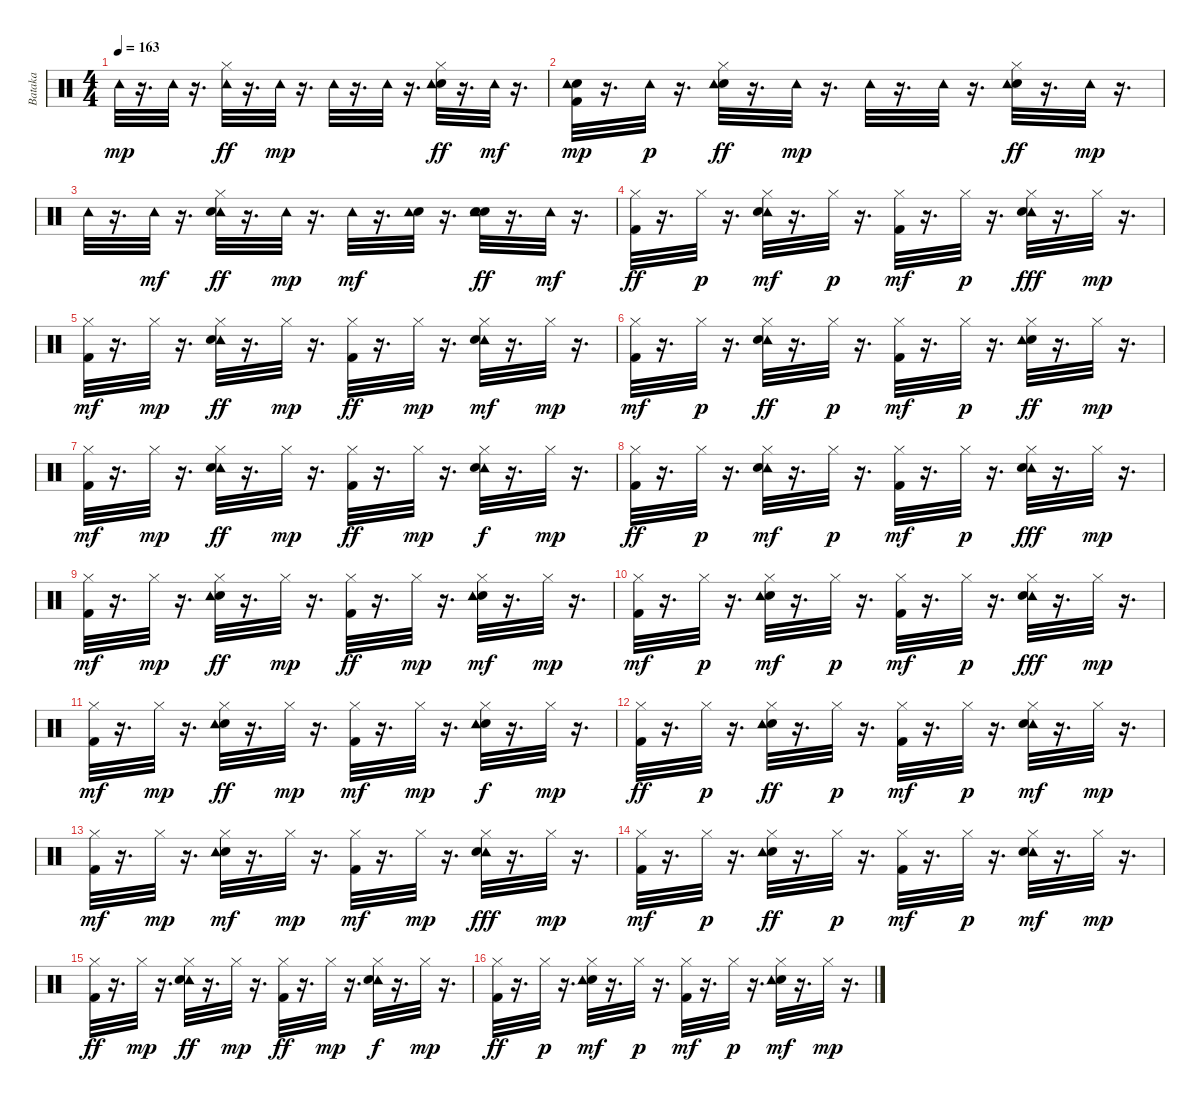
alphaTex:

\track ("Bataka" "Bataka") {instrument percussion}
\staff {score}
\articulation defaults
\ts (4 4)
\tempo 163
\clef neutral
\ks c "Tambourine (hit)".32{dy mp}
r.16{d} "Tambourine (hit)".32 r.16{d} ("Tambourine (hit)" "Hi-Hat (closed)").32{dy ff} r.16{d} "Tambourine (hit)".32{dy mp} r.16{d} "Tambourine (hit)".32 r.16{d} "Tambourine (hit)".32 r.16{d} ("Hand Clap (hit)" "Hi-Hat (closed)" "Tambourine (hit)").32{dy ff} r.16{d} "Tambourine (hit)".32{dy mf} r.16{d} |
("Kick (hit) 2" "Electric Snare (hit)" "Tambourine (hit)").32{dy mp} r.16{d} "Tambourine (hit)".32{dy p} r.16{d} ("Hi-Hat (closed)" "Hand Clap (hit)" "Tambourine (hit)").32{dy ff} r.16{d} "Tambourine (hit)".32{dy mp} r.16{d} "Tambourine (hit)".32 r.16{d} "Tambourine (hit)".32 r.16{d} ("Hand Clap (hit)" "Hi-Hat (closed)" "Tambourine (hit)").32{dy ff} r.16{d} "Tambourine (hit)".32{dy mp} r.16{d} |
"Tambourine (hit)".32 r.16{d} "Tambourine (hit)".32{dy mf} r.16{d} ("Tambourine (hit)" "Hand Clap (hit)" "Hi-Hat (closed)").32{dy ff} r.16{d} "Tambourine (hit)".32{dy mp} r.16{d} "Tambourine (hit)".32{dy mf} r.16{d} ("Electric Snare (hit)" "Tambourine (hit)").32 r.16{d} ("Electric Snare (hit)" "Hand Clap (hit)" "Tambourine (hit)").32{dy ff} r.16{d} "Tambourine (hit)".32{dy mf} r.16{d} |
("Hi-Hat (closed)" "Kick (hit) 2").32{dy ff} r.16{d} "Hi-Hat (closed)".32{dy p} r.16{d} ("Tambourine (hit)" "Electric Snare (hit)" "Hi-Hat (closed)").32{dy mf} r.16{d} "Hi-Hat (closed)".32{dy p} r.16{d} ("Hi-Hat (closed)" "Kick (hit) 2").32{dy mf} r.16{d} "Hi-Hat (closed)".32{dy p} r.16{d} ("Tambourine (hit)" "Hi-Hat (closed)" "Electric Snare (hit)").32{dy fff} r.16{d} "Hi-Hat (closed)".32{dy mp} r.16{d} |
("Hi-Hat (closed)" "Kick (hit) 2").32{dy mf} r.16{d} "Hi-Hat (closed)".32{dy mp} r.16{d} ("Hi-Hat (closed)" "Tambourine (hit)" "Electric Snare (hit)").32{dy ff} r.16{d} "Hi-Hat (closed)".32{dy mp} r.16{d} ("Hi-Hat (closed)" "Kick (hit) 2").32{dy ff} r.16{d} "Hi-Hat (closed)".32{dy mp} r.16{d} ("Tambourine (hit)" "Electric Snare (hit)" "Hi-Hat (closed)").32{dy mf} r.16{d} "Hi-Hat (closed)".32{dy mp} r.16{d} |
("Kick (hit) 2" "Hi-Hat (closed)").32{dy mf} r.16{d} "Hi-Hat (closed)".32{dy p} r.16{d} ("Tambourine (hit)" "Hi-Hat (closed)" "Electric Snare (hit)").32{dy ff} r.16{d} "Hi-Hat (closed)".32{dy p} r.16{d} ("Kick (hit) 2" "Hi-Hat (closed)").32{dy mf} r.16{d} "Hi-Hat (closed)".32{dy p} r.16{d} ("Hi-Hat (closed)" "Electric Snare (hit)" "Tambourine (hit)").32{dy ff} r.16{d} "Hi-Hat (closed)".32{dy mp} r.16{d} |
("Kick (hit) 2" "Hi-Hat (closed)").32{dy mf} r.16{d} "Hi-Hat (closed)".32{dy mp} r.16{d} ("Hi-Hat (closed)" "Tambourine (hit)" "Electric Snare (hit)").32{dy ff} r.16{d} "Hi-Hat (closed)".32{dy mp} r.16{d} ("Hi-Hat (closed)" "Kick (hit) 2").32{dy ff} r.16{d} "Hi-Hat (closed)".32{dy mp} r.16{d} ("Hi-Hat (closed)" "Tambourine (hit)" "Electric Snare (hit)").32{dy f} r.16{d} "Hi-Hat (closed)".32{dy mp} r.16{d} |
("Hi-Hat (closed)" "Kick (hit) 2").32{dy ff} r.16{d} "Hi-Hat (closed)".32{dy p} r.16{d} ("Tambourine (hit)" "Electric Snare (hit)" "Hi-Hat (closed)").32{dy mf} r.16{d} "Hi-Hat (closed)".32{dy p} r.16{d} ("Hi-Hat (closed)" "Kick (hit) 2").32{dy mf} r.16{d} "Hi-Hat (closed)".32{dy p} r.16{d} ("Tambourine (hit)" "Hi-Hat (closed)" "Electric Snare (hit)").32{dy fff} r.16{d} "Hi-Hat (closed)".32{dy mp} r.16{d} |
("Hi-Hat (closed)" "Kick (hit) 2").32{dy mf} r.16{d} "Hi-Hat (closed)".32{dy mp} r.16{d} ("Hi-Hat (closed)" "Electric Snare (hit)" "Tambourine (hit)").32{dy ff} r.16{d} "Hi-Hat (closed)".32{dy mp} r.16{d} ("Hi-Hat (closed)" "Kick (hit) 2").32{dy ff} r.16{d} "Hi-Hat (closed)".32{dy mp} r.16{d} ("Electric Snare (hit)" "Hi-Hat (closed)" "Tambourine (hit)").32{dy mf} r.16{d} "Hi-Hat (closed)".32{dy mp} r.16{d} |
("Kick (hit) 2" "Hi-Hat (closed)").32{dy mf} r.16{d} "Hi-Hat (closed)".32{dy p} r.16{d} ("Electric Snare (hit)" "Tambourine (hit)" "Hi-Hat (closed)").32{dy mf} r.16{d} "Hi-Hat (closed)".32{dy p} r.16{d} ("Hi-Hat (closed)" "Kick (hit) 2").32{dy mf} r.16{d} "Hi-Hat (closed)".32{dy p} r.16{d} ("Hi-Hat (closed)" "Tambourine (hit)" "Electric Snare (hit)").32{dy fff} r.16{d} "Hi-Hat (closed)".32{dy mp} r.16{d} |
("Kick (hit) 2" "Hi-Hat (closed)").32{dy mf} r.16{d} "Hi-Hat (closed)".32{dy mp} r.16{d} ("Electric Snare (hit)" "Tambourine (hit)" "Hi-Hat (closed)").32{dy ff} r.16{d} "Hi-Hat (closed)".32{dy mp} r.16{d} ("Kick (hit) 2" "Hi-Hat (closed)").32{dy mf} r.16{d} "Hi-Hat (closed)".32{dy mp} r.16{d} ("Electric Snare (hit)" "Tambourine (hit)" "Hi-Hat (closed)").32{dy f} r.16{d} "Hi-Hat (closed)".32{dy mp} r.16{d} |
("Hi-Hat (closed)" "Kick (hit) 2").32{dy ff} r.16{d} "Hi-Hat (closed)".32{dy p} r.16{d} ("Electric Snare (hit)" "Hi-Hat (closed)" "Tambourine (hit)").32{dy ff} r.16{d} "Hi-Hat (closed)".32{dy p} r.16{d} ("Hi-Hat (closed)" "Kick (hit) 2").32{dy mf} r.16{d} "Hi-Hat (closed)".32{dy p} r.16{d} ("Tambourine (hit)" "Electric Snare (hit)" "Hi-Hat (closed)").32{dy mf} r.16{d} "Hi-Hat (closed)".32{dy mp} r.16{d} |
("Kick (hit) 2" "Hi-Hat (closed)").32{dy mf} r.16{d} "Hi-Hat (closed)".32{dy mp} r.16{d} ("Electric Snare (hit)" "Tambourine (hit)" "Hi-Hat (closed)").32{dy mf} r.16{d} "Hi-Hat (closed)".32{dy mp} r.16{d} ("Kick (hit) 2" "Hi-Hat (closed)").32{dy mf} r.16{d} "Hi-Hat (closed)".32{dy mp} r.16{d} ("Hi-Hat (closed)" "Tambourine (hit)" "Electric Snare (hit)").32{dy fff} r.16{d} "Hi-Hat (closed)".32{dy mp} r.16{d} |
("Kick (hit) 2" "Hi-Hat (closed)").32{dy mf} r.16{d} "Hi-Hat (closed)".32{dy p} r.16{d} ("Electric Snare (hit)" "Hi-Hat (closed)" "Tambourine (hit)").32{dy ff} r.16{d} "Hi-Hat (closed)".32{dy p} r.16{d} ("Hi-Hat (closed)" "Kick (hit) 2").32{dy mf} r.16{d} "Hi-Hat (closed)".32{dy p} r.16{d} ("Tambourine (hit)" "Electric Snare (hit)" "Hi-Hat (closed)").32{dy mf} r.16{d} "Hi-Hat (closed)".32{dy mp} r.16{d} |
("Hi-Hat (closed)" "Kick (hit) 2").32{dy ff} r.16{d} "Hi-Hat (closed)".32{dy mp} r.16{d} ("Tambourine (hit)" "Electric Snare (hit)" "Hi-Hat (closed)").32{dy ff} r.16{d} "Hi-Hat (closed)".32{dy mp} r.16{d} ("Hi-Hat (closed)" "Kick (hit) 2").32{dy ff} r.16{d} "Hi-Hat (closed)".32{dy mp} r.16{d} ("Tambourine (hit)" "Electric Snare (hit)" "Hi-Hat (closed)").32{dy f} r.16{d} "Hi-Hat (closed)".32{dy mp} r.16{d} |
("Kick (hit) 2" "Hi-Hat (closed)").32{dy ff} r.16{d} "Hi-Hat (closed)".32{dy p} r.16{d} ("Electric Snare (hit)" "Tambourine (hit)" "Hi-Hat (closed)").32{dy mf} r.16{d} "Hi-Hat (closed)".32{dy p} r.16{d} ("Hi-Hat (closed)" "Kick (hit) 2").32{dy mf} r.16{d} "Hi-Hat (closed)".32{dy p} r.16{d} ("Electric Snare (hit)" "Hi-Hat (closed)" "Tambourine (hit)").32{dy mf} r.16{d} "Hi-Hat (closed)".32{dy mp} r.16{d}
